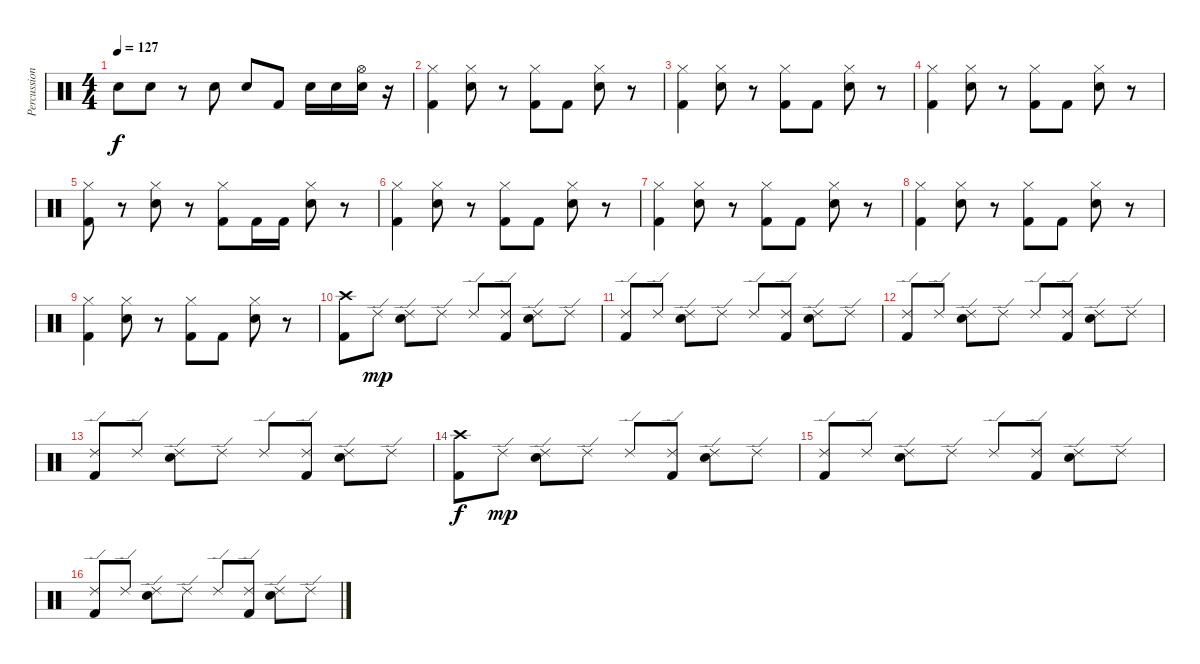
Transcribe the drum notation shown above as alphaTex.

\track ("Percussion" "Percussion") {instrument percussion}
\staff {score}
\articulation defaults
\ts (4 4)
\tempo 127
\clef neutral
\ks c "Snare (hit) 2".8{dy f} "Snare (hit) 2".8
r.8 "Snare (hit) 2".8 "Snare (hit) 2".8 "Kick (hit) 2".8 "Snare (hit) 2".16 "Snare (hit) 2".16 ("Hi-Hat (open)" "Snare (hit) 2").16 r.16 |
("Hi-Hat (closed)" "Kick (hit) 2").4 ("Hi-Hat (closed)" "Snare (hit) 2").8 r.8 ("Hi-Hat (closed)" "Kick (hit) 2").8 "Kick (hit) 2".8 ("Hi-Hat (closed)" "Snare (hit) 2").8 r.8 |
("Hi-Hat (closed)" "Kick (hit) 2").4 ("Hi-Hat (closed)" "Snare (hit) 2").8 r.8 ("Hi-Hat (closed)" "Kick (hit) 2").8 "Kick (hit) 2".8 ("Hi-Hat (closed)" "Snare (hit) 2").8 r.8 |
("Hi-Hat (closed)" "Kick (hit) 2").4 ("Hi-Hat (closed)" "Snare (hit) 2").8 r.8 ("Hi-Hat (closed)" "Kick (hit) 2").8 "Kick (hit) 2".8 ("Hi-Hat (closed)" "Snare (hit) 2").8 r.8 |
("Hi-Hat (closed)" "Kick (hit) 2").8 r.8 ("Hi-Hat (closed)" "Snare (hit) 2").8 r.8 ("Hi-Hat (closed)" "Kick (hit) 2").8 "Kick (hit) 2".16 "Kick (hit) 2".16 ("Hi-Hat (closed)" "Snare (hit) 2").8 r.8 |
("Hi-Hat (closed)" "Kick (hit) 2").4 ("Hi-Hat (closed)" "Snare (hit) 2").8 r.8 ("Hi-Hat (closed)" "Kick (hit) 2").8 "Kick (hit) 2".8 ("Hi-Hat (closed)" "Snare (hit) 2").8 r.8 |
("Hi-Hat (closed)" "Kick (hit) 2").4 ("Hi-Hat (closed)" "Snare (hit) 2").8 r.8 ("Hi-Hat (closed)" "Kick (hit) 2").8 "Kick (hit) 2".8 ("Hi-Hat (closed)" "Snare (hit) 2").8 r.8 |
("Hi-Hat (closed)" "Kick (hit) 2").4 ("Hi-Hat (closed)" "Snare (hit) 2").8 r.8 ("Hi-Hat (closed)" "Kick (hit) 2").8 "Kick (hit) 2".8 ("Hi-Hat (closed)" "Snare (hit) 2").8 r.8 |
("Hi-Hat (closed)" "Kick (hit) 2").4 ("Hi-Hat (closed)" "Snare (hit) 2").8 r.8 ("Hi-Hat (closed)" "Kick (hit) 2").8 "Kick (hit) 2".8 ("Hi-Hat (closed)" "Snare (hit) 2").8 r.8 |
("Crash high (hit)" "Kick (hit) 2").8 "Ride (edge) 2".8{dy mp} ("Ride (edge) 2" "Snare (hit) 2").8 "Ride (edge) 2".8 "Ride (edge) 2".8 ("Ride (edge) 2" "Kick (hit) 2").8 ("Ride (edge) 2" "Snare (hit) 2").8 "Ride (edge) 2".8 |
("Ride (edge) 2" "Kick (hit) 2").8 "Ride (edge) 2".8 ("Ride (edge) 2" "Snare (hit) 2").8 "Ride (edge) 2".8 "Ride (edge) 2".8 ("Ride (edge) 2" "Kick (hit) 2").8 ("Ride (edge) 2" "Snare (hit) 2").8 "Ride (edge) 2".8 |
("Ride (edge) 2" "Kick (hit) 2").8 "Ride (edge) 2".8 ("Ride (edge) 2" "Snare (hit) 2").8 "Ride (edge) 2".8 "Ride (edge) 2".8 ("Ride (edge) 2" "Kick (hit) 2").8 ("Ride (edge) 2" "Snare (hit) 2").8 "Ride (edge) 2".8 |
("Ride (edge) 2" "Kick (hit) 2").8 "Ride (edge) 2".8 ("Ride (edge) 2" "Snare (hit) 2").8 "Ride (edge) 2".8 "Ride (edge) 2".8 ("Ride (edge) 2" "Kick (hit) 2").8 ("Ride (edge) 2" "Snare (hit) 2").8 "Ride (edge) 2".8 |
("Crash high (hit)" "Kick (hit) 2").8{dy f} "Ride (edge) 2".8{dy mp} ("Ride (edge) 2" "Snare (hit) 2").8 "Ride (edge) 2".8 "Ride (edge) 2".8 ("Ride (edge) 2" "Kick (hit) 2").8 ("Ride (edge) 2" "Snare (hit) 2").8 "Ride (edge) 2".8 |
("Ride (edge) 2" "Kick (hit) 2").8 "Ride (edge) 2".8 ("Ride (edge) 2" "Snare (hit) 2").8 "Ride (edge) 2".8 "Ride (edge) 2".8 ("Ride (edge) 2" "Kick (hit) 2").8 ("Ride (edge) 2" "Snare (hit) 2").8 "Ride (edge) 2".8 |
("Ride (edge) 2" "Kick (hit) 2").8 "Ride (edge) 2".8 ("Ride (edge) 2" "Snare (hit) 2").8 "Ride (edge) 2".8 "Ride (edge) 2".8 ("Ride (edge) 2" "Kick (hit) 2").8 ("Ride (edge) 2" "Snare (hit) 2").8 "Ride (edge) 2".8
